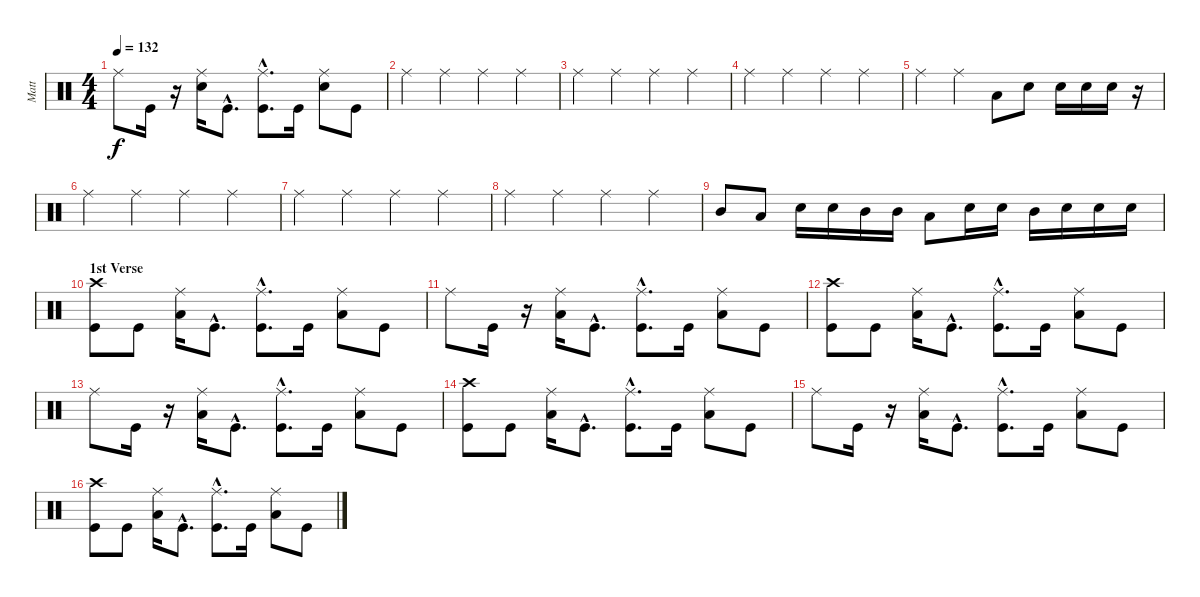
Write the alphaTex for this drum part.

\track ("Matt" "Matt") {instrument percussion}
\staff {score}
\articulation defaults
\ts (4 4)
\tempo 132
\clef neutral
\ks c "Ride (middle)".8{dy f} "Kick (hit)".16
r.16 ("Snare (hit) 2" "Ride (middle)").16 "Kick (hit)"{hac}.8{d} ("Ride (middle)" "Kick (hit)"{hac}).8{d} "Kick (hit)".16 ("Snare (hit) 2" "Ride (middle)").8 "Kick (hit)".8 |
"Ride (middle)".4 "Ride (middle)".4 "Ride (middle)".4 "Ride (middle)".4 |
"Ride (middle)".4 "Ride (middle)".4 "Ride (middle)".4 "Ride (middle)".4 |
"Ride (middle)".4 "Ride (middle)".4 "Ride (middle)".4 "Ride (middle)".4 |
"Ride (middle)".4 "Ride (middle)".4 "Low Tom (hit)".8 "Electric Snare (hit)".8 "Electric Snare (hit)".16 "Electric Snare (hit)".16 "Electric Snare (hit)".16 r.16 |
"Ride (middle)".4 "Ride (middle)".4 "Ride (middle)".4 "Ride (middle)".4 |
"Ride (middle)".4 "Ride (middle)".4 "Ride (middle)".4 "Ride (middle)".4 |
"Ride (middle)".4 "Ride (middle)".4 "Ride (middle)".4 "Ride (middle)".4 |
"Mid Tom (hit)".8 "Low Tom (hit)".8 "Electric Snare (hit)".16 "Electric Snare (hit)".16 "Mid Tom (hit)".16 "Mid Tom (hit)".16 "Low Tom (hit)".8 "Electric Snare (hit)".16 "Electric Snare (hit)".16 "Mid Tom (hit)".16 "Electric Snare (hit)".16 "Electric Snare (hit)".16 "Electric Snare (hit)".16 |
\section ("" "1st Verse")
("Kick (hit)" "Crash high (hit)").8 "Kick (hit)".8 ("Low Tom (hit)" "Ride (middle)").16 "Kick (hit)"{hac}.8{d} ("Kick (hit)"{hac} "Ride (middle)").8{d} "Kick (hit)".16 ("Low Tom (hit)" "Ride (middle)").8 "Kick (hit)".8 |
"Ride (middle)".8 "Kick (hit)".16 r.16 ("Ride (middle)" "Low Tom (hit)").16 "Kick (hit)"{hac}.8{d} ("Ride (middle)" "Kick (hit)"{hac}).8{d} "Kick (hit)".16 ("Ride (middle)" "Low Tom (hit)").8 "Kick (hit)".8 |
("Crash high (hit)" "Kick (hit)").8 "Kick (hit)".8 ("Low Tom (hit)" "Ride (middle)").16 "Kick (hit)"{hac}.8{d} ("Kick (hit)"{hac} "Ride (middle)").8{d} "Kick (hit)".16 ("Ride (middle)" "Low Tom (hit)").8 "Kick (hit)".8 |
"Ride (middle)".8 "Kick (hit)".16 r.16 ("Ride (middle)" "Low Tom (hit)").16 "Kick (hit)"{hac}.8{d} ("Kick (hit)"{hac} "Ride (middle)").8{d} "Kick (hit)".16 ("Ride (middle)" "Low Tom (hit)").8 "Kick (hit)".8 |
("Crash high (hit)" "Kick (hit)").8 "Kick (hit)".8 ("Ride (middle)" "Low Tom (hit)").16 "Kick (hit)"{hac}.8{d} ("Ride (middle)" "Kick (hit)"{hac}).8{d} "Kick (hit)".16 ("Ride (middle)" "Low Tom (hit)").8 "Kick (hit)".8 |
"Ride (middle)".8 "Kick (hit)".16 r.16 ("Ride (middle)" "Low Tom (hit)").16 "Kick (hit)"{hac}.8{d} ("Kick (hit)"{hac} "Ride (middle)").8{d} "Kick (hit)".16 ("Ride (middle)" "Low Tom (hit)").8 "Kick (hit)".8 |
("Kick (hit)" "Crash high (hit)").8 "Kick (hit)".8 ("Low Tom (hit)" "Ride (middle)").16 "Kick (hit)"{hac}.8{d} ("Kick (hit)"{hac} "Ride (middle)").8{d} "Kick (hit)".16 ("Low Tom (hit)" "Ride (middle)").8 "Kick (hit)".8
